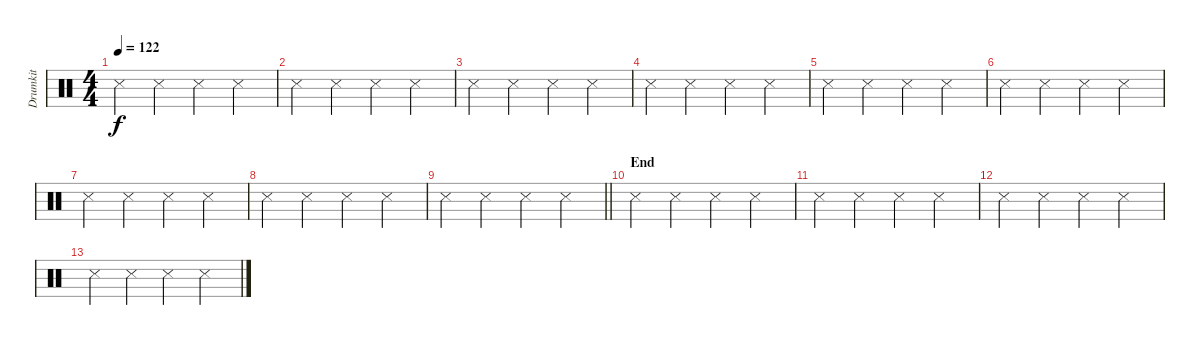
\track ("Drumkit" "Drumkit") {mute instrument percussion}
\staff {score}
\articulation defaults
\ts (4 4)
\tempo 122
\clef neutral
\ks c "Snare (side stick) 3".4{dy f} "Snare (side stick) 3".4 "Snare (side stick) 3".4 "Snare (side stick) 3".4
|
"Snare (side stick) 3".4 "Snare (side stick) 3".4 "Snare (side stick) 3".4 "Snare (side stick) 3".4 |
"Snare (side stick) 3".4 "Snare (side stick) 3".4 "Snare (side stick) 3".4 "Snare (side stick) 3".4 |
"Snare (side stick) 3".4 "Snare (side stick) 3".4 "Snare (side stick) 3".4 "Snare (side stick) 3".4 |
"Snare (side stick) 3".4 "Snare (side stick) 3".4 "Snare (side stick) 3".4 "Snare (side stick) 3".4 |
"Snare (side stick) 3".4 "Snare (side stick) 3".4 "Snare (side stick) 3".4 "Snare (side stick) 3".4 |
"Snare (side stick) 3".4 "Snare (side stick) 3".4 "Snare (side stick) 3".4 "Snare (side stick) 3".4 |
"Snare (side stick) 3".4 "Snare (side stick) 3".4 "Snare (side stick) 3".4 "Snare (side stick) 3".4 |
\barLineRight lightlight "Snare (side stick) 3".4 "Snare (side stick) 3".4 "Snare (side stick) 3".4 "Snare (side stick) 3".4
|
\section ("" "End")
"Snare (side stick) 3".4 "Snare (side stick) 3".4 "Snare (side stick) 3".4 "Snare (side stick) 3".4 |
"Snare (side stick) 3".4 "Snare (side stick) 3".4 "Snare (side stick) 3".4 "Snare (side stick) 3".4 |
"Snare (side stick) 3".4 "Snare (side stick) 3".4 "Snare (side stick) 3".4 "Snare (side stick) 3".4 |
"Snare (side stick) 3".4 "Snare (side stick) 3".4 "Snare (side stick) 3".4 "Snare (side stick) 3".4
